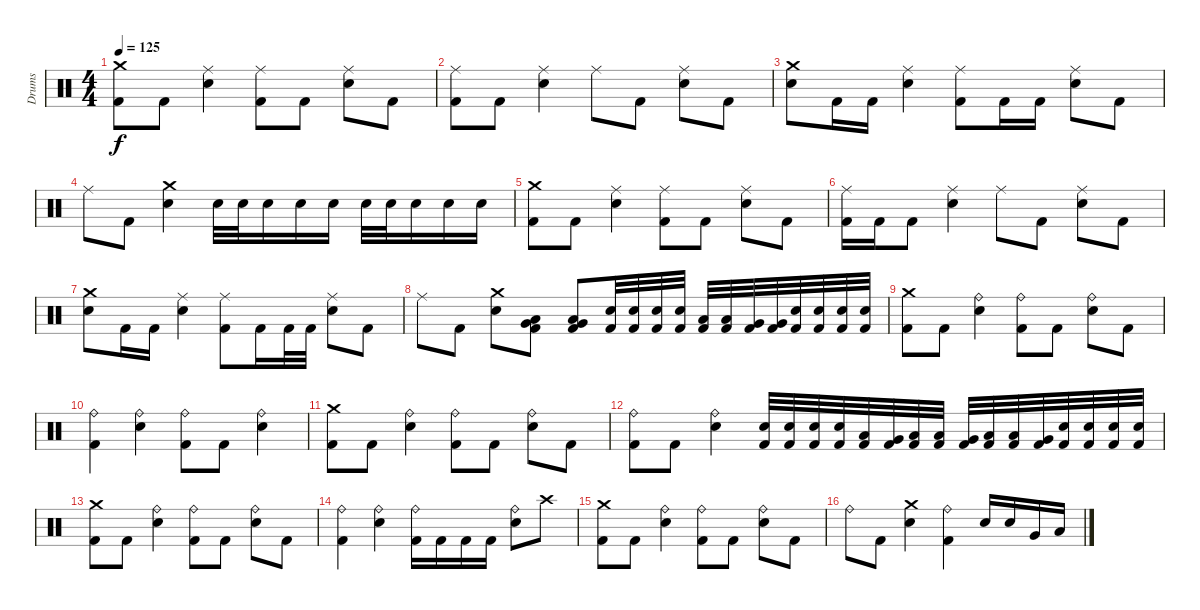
\track ("Drums" "Drums") {instrument percussion}
\staff {score}
\articulation defaults
\ts (4 4)
\tempo 125
\clef neutral
\ks c
("Crash medium (hit)" "Kick (hit) 2").8{dy f} "Kick (hit) 2".8 ("Ride (middle)" "Electric Snare (hit)").4 ("Ride (middle)" "Kick (hit) 2").8 "Kick (hit) 2".8 ("Ride (middle)" "Electric Snare (hit)").8 "Kick (hit) 2".8 |
("Ride (middle)" "Kick (hit) 2").8 "Kick (hit) 2".8 ("Ride (middle)" "Electric Snare (hit)").4 "Ride (middle)".8 "Kick (hit) 2".8 ("Ride (middle)" "Electric Snare (hit)").8 "Kick (hit) 2".8 |
("Crash medium (hit)" "Electric Snare (hit)").8 "Kick (hit) 2".16 "Kick (hit) 2".16 ("Ride (middle)" "Electric Snare (hit)").4 ("Ride (middle)" "Kick (hit) 2").8 "Kick (hit) 2".16 "Kick (hit) 2".16 ("Ride (middle)" "Electric Snare (hit)").8 "Kick (hit) 2".8 |
"Ride (middle)".8 "Kick (hit) 2".8 ("Crash medium (hit)" "Electric Snare (hit)").4 "Electric Snare (hit)".32 "Electric Snare (hit)".32 "Electric Snare (hit)".16 "Electric Snare (hit)".16 "Electric Snare (hit)".16 "Electric Snare (hit)".32 "Electric Snare (hit)".32 "Electric Snare (hit)".16 "Electric Snare (hit)".16 "Electric Snare (hit)".16 |
("Crash medium (hit)" "Kick (hit) 2").8 "Kick (hit) 2".8 ("Ride (middle)" "Electric Snare (hit)").4 ("Ride (middle)" "Kick (hit) 2").8 "Kick (hit) 2".8 ("Ride (middle)" "Electric Snare (hit)").8 "Kick (hit) 2".8 |
("Ride (middle)" "Kick (hit) 2").16 "Kick (hit) 2".16 "Kick (hit) 2".8 ("Ride (middle)" "Electric Snare (hit)").4 "Ride (middle)".8 "Kick (hit) 2".8 ("Ride (middle)" "Electric Snare (hit)").8 "Kick (hit) 2".8 |
("Crash medium (hit)" "Electric Snare (hit)").8 "Kick (hit) 2".16 "Kick (hit) 2".16 ("Ride (middle)" "Electric Snare (hit)").4 ("Ride (middle)" "Kick (hit) 2").8 "Kick (hit) 2".16 "Kick (hit) 2".32 "Kick (hit) 2".32 ("Ride (middle)" "Electric Snare (hit)").8 "Kick (hit) 2".8 |
"Ride (middle)".8 "Kick (hit) 2".8 ("Crash medium (hit)" "Electric Snare (hit)").8 ("Low Floor Tom (hit)" "Very Low Tom (hit)" "Kick (hit) 2").8 ("Low Floor Tom (hit)" "Very Low Tom (hit)" "Kick (hit) 2").8 ("Electric Snare (hit)" "Kick (hit) 2").32 ("Electric Snare (hit)" "Kick (hit) 2").32 ("Electric Snare (hit)" "Kick (hit) 2").32 ("Electric Snare (hit)" "Kick (hit) 2").32 ("Low Floor Tom (hit)" "Kick (hit) 2").32 ("Low Floor Tom (hit)" "Kick (hit) 2").32 ("Very Low Tom (hit)" "Kick (hit) 2").32 ("Very Low Tom (hit)" "Kick (hit) 2").32 ("Electric Snare (hit)" "Kick (hit) 2").32 ("Electric Snare (hit)" "Kick (hit) 2").32 ("Electric Snare (hit)" "Kick (hit) 2").32 ("Electric Snare (hit)" "Kick (hit) 2").32 |
("Crash medium (hit)" "Kick (hit) 2").8 "Kick (hit) 2".8 ("Ride (bell)" "Electric Snare (hit)").4 ("Ride (bell)" "Kick (hit) 2").8 "Kick (hit) 2".8 ("Ride (bell)" "Electric Snare (hit)").8 "Kick (hit) 2".8 |
("Ride (bell)" "Kick (hit) 2").4 ("Ride (bell)" "Electric Snare (hit)").4 ("Ride (bell)" "Kick (hit) 2").8 "Kick (hit) 2".8 ("Ride (bell)" "Electric Snare (hit)").4 |
("Crash medium (hit)" "Kick (hit) 2").8 "Kick (hit) 2".8 ("Ride (bell)" "Electric Snare (hit)").4 ("Ride (bell)" "Kick (hit) 2").8 "Kick (hit) 2".8 ("Ride (bell)" "Electric Snare (hit)").8 "Kick (hit) 2".8 |
("Ride (bell)" "Kick (hit) 2").8 "Kick (hit) 2".8 ("Ride (bell)" "Electric Snare (hit)").4 ("Electric Snare (hit)" "Kick (hit) 2").32 ("Electric Snare (hit)" "Kick (hit) 2").32 ("Electric Snare (hit)" "Kick (hit) 2").32 ("Electric Snare (hit)" "Kick (hit) 2").32 ("Low Tom (hit)" "Kick (hit) 2").32 ("Very Low Tom (hit)" "Kick (hit) 2").32 ("Low Floor Tom (hit)" "Kick (hit) 2").32 ("Low Tom (hit)" "Kick (hit) 2").32 ("Very Low Tom (hit)" "Kick (hit) 2").32 ("Low Floor Tom (hit)" "Kick (hit) 2").32 ("Low Tom (hit)" "Kick (hit) 2").32 ("Very Low Tom (hit)" "Kick (hit) 2").32 ("Electric Snare (hit)" "Kick (hit) 2").32 ("Electric Snare (hit)" "Kick (hit) 2").32 ("Electric Snare (hit)" "Kick (hit) 2").32 ("Electric Snare (hit)" "Kick (hit) 2").32 |
("Crash medium (hit)" "Kick (hit) 2").8 "Kick (hit) 2".8 ("Ride (bell)" "Electric Snare (hit)").4 ("Ride (bell)" "Kick (hit) 2").8 "Kick (hit) 2".8 ("Ride (bell)" "Electric Snare (hit)").8 "Kick (hit) 2".8 |
("Ride (bell)" "Kick (hit) 2").4 ("Ride (bell)" "Electric Snare (hit)").4 ("Ride (bell)" "Kick (hit) 2").16 "Kick (hit) 2".16 "Kick (hit) 2".16 "Kick (hit) 2".16 ("Ride (bell)" "Electric Snare (hit)").8 "Crash high (hit)".8 |
("Crash medium (hit)" "Kick (hit) 2").8 "Kick (hit) 2".8 ("Ride (bell)" "Electric Snare (hit)").4 ("Ride (bell)" "Kick (hit) 2").8 "Kick (hit) 2".8 ("Ride (bell)" "Electric Snare (hit)").8 "Kick (hit) 2".8 |
"Ride (bell)".8 "Kick (hit) 2".8 ("Crash medium (hit)" "Electric Snare (hit)").4 ("Ride (bell)" "Kick (hit) 2").4 "Electric Snare (hit)".16 "Electric Snare (hit)".16 "Very Low Tom (hit)".16 "Low Floor Tom (hit)".16
